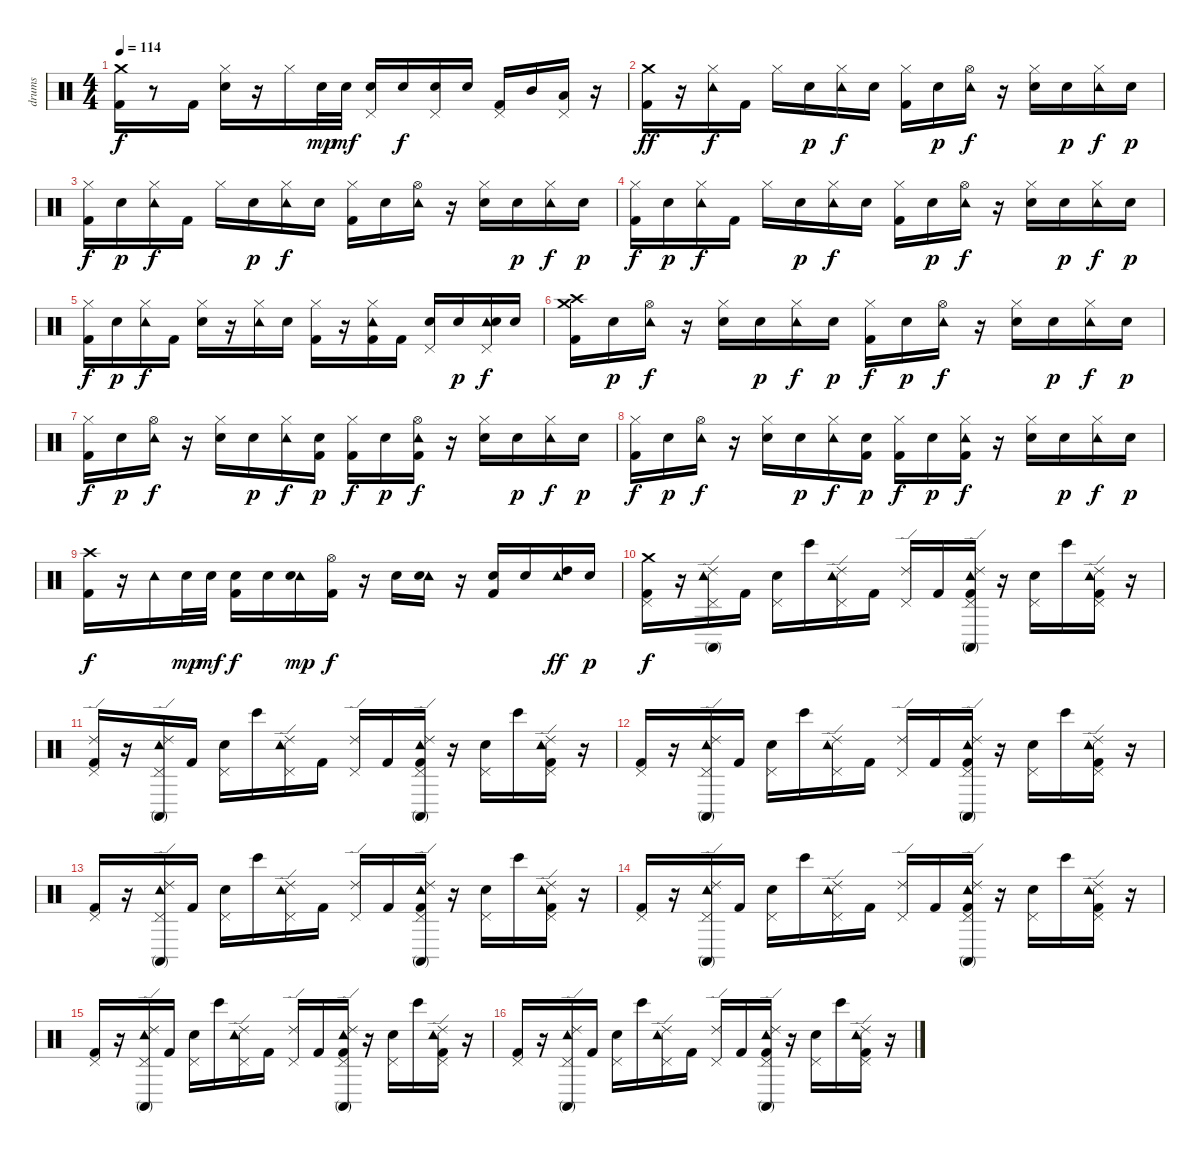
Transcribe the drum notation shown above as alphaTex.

\track ("drums" "drums") {instrument percussion}
\staff {score}
\articulation defaults
\ts (4 4)
\tempo 114
\clef neutral
\ks c
("Crash medium (hit)" "Kick (hit) 2").16{dy f} r.8 "Kick (hit) 2".16 ("Electric Snare (hit)" "Hi-Hat (closed)").16 r.16 "Hi-Hat (closed)".16 "Electric Snare (hit)".32{dy mp} "Electric Snare (hit)".32{dy mf} ("Pedal Hi-Hat (hit)" "Electric Snare (hit)").16 "Electric Snare (hit)".16{dy f} ("Pedal Hi-Hat (hit)" "Electric Snare (hit)").16 "Electric Snare (hit)".16 ("Pedal Hi-Hat (hit)" "Kick (hit) 2").16 "Mid Tom (hit)".16 ("Pedal Hi-Hat (hit)" "Low Tom (hit)").16 r.16 |
("Crash medium (hit)" "Kick (hit) 2").16{dy ff} r.16 ("Tambourine (hit)" "Hi-Hat (closed)").16{dy f} "Kick (hit) 2".16 "Hi-Hat (closed)".16 "Electric Snare (hit)".16{dy p} ("Tambourine (hit)" "Hi-Hat (closed)").16{dy f} "Electric Snare (hit)".16 ("Kick (hit) 2" "Hi-Hat (closed)").16 "Electric Snare (hit)".16{dy p} ("Tambourine (hit)" "Hi-Hat (open)").16{dy f} r.16 ("Electric Snare (hit)" "Hi-Hat (closed)").16 "Electric Snare (hit)".16{dy p} ("Tambourine (hit)" "Hi-Hat (closed)").16{dy f} "Electric Snare (hit)".16{dy p} |
("Hi-Hat (closed)" "Kick (hit) 2").16{dy f} "Electric Snare (hit)".16{dy p} ("Tambourine (hit)" "Hi-Hat (closed)").16{dy f} "Kick (hit) 2".16 "Hi-Hat (closed)".16 "Electric Snare (hit)".16{dy p} ("Tambourine (hit)" "Hi-Hat (closed)").16{dy f} "Electric Snare (hit)".16 ("Kick (hit) 2" "Hi-Hat (closed)").16 "Electric Snare (hit)".16 ("Tambourine (hit)" "Hi-Hat (open)").16 r.16 ("Electric Snare (hit)" "Hi-Hat (closed)").16 "Electric Snare (hit)".16{dy p} ("Tambourine (hit)" "Hi-Hat (closed)").16{dy f} "Electric Snare (hit)".16{dy p} |
("Hi-Hat (closed)" "Kick (hit) 2").16{dy f} "Electric Snare (hit)".16{dy p} ("Tambourine (hit)" "Hi-Hat (closed)").16{dy f} "Kick (hit) 2".16 "Hi-Hat (closed)".16 "Electric Snare (hit)".16{dy p} ("Tambourine (hit)" "Hi-Hat (closed)").16{dy f} "Electric Snare (hit)".16 ("Kick (hit) 2" "Hi-Hat (closed)").16 "Electric Snare (hit)".16{dy p} ("Tambourine (hit)" "Hi-Hat (open)").16{dy f} r.16 ("Electric Snare (hit)" "Hi-Hat (closed)").16 "Electric Snare (hit)".16{dy p} ("Tambourine (hit)" "Hi-Hat (closed)").16{dy f} "Electric Snare (hit)".16{dy p} |
("Hi-Hat (closed)" "Kick (hit) 2").16{dy f} "Electric Snare (hit)".16{dy p} ("Hi-Hat (closed)" "Tambourine (hit)").16{dy f} "Kick (hit) 2".16 ("Electric Snare (hit)" "Hi-Hat (closed)").16 r.16 ("Tambourine (hit)" "Hi-Hat (closed)").16 "Electric Snare (hit)".16 ("Hi-Hat (closed)" "Kick (hit) 2").16 r.16 ("Tambourine (hit)" "Kick (hit) 2" "Hi-Hat (closed)").16 "Kick (hit) 2".16 ("Electric Snare (hit)" "Pedal Hi-Hat (hit)").16 "Electric Snare (hit)".16{dy p} ("Tambourine (hit)" "Electric Snare (hit)" "Pedal Hi-Hat (hit)").16{dy f} "Electric Snare (hit)".16 |
("Crash medium (hit)" "Crash high (hit)" "Kick (hit) 2").16 "Electric Snare (hit)".16{dy p} ("Tambourine (hit)" "Hi-Hat (open)").16{dy f} r.16 ("Electric Snare (hit)" "Hi-Hat (closed)").16 "Electric Snare (hit)".16{dy p} ("Tambourine (hit)" "Hi-Hat (closed)").16{dy f} "Electric Snare (hit)".16{dy p} ("Hi-Hat (closed)" "Kick (hit) 2").16{dy f} "Electric Snare (hit)".16{dy p} ("Tambourine (hit)" "Hi-Hat (open)").16{dy f} r.16 ("Hi-Hat (closed)" "Electric Snare (hit)").16 "Electric Snare (hit)".16{dy p} ("Tambourine (hit)" "Hi-Hat (closed)").16{dy f} "Electric Snare (hit)".16{dy p} |
("Hi-Hat (closed)" "Kick (hit) 2").16{dy f} "Electric Snare (hit)".16{dy p} ("Tambourine (hit)" "Hi-Hat (open)").16{dy f} r.16 ("Electric Snare (hit)" "Hi-Hat (closed)").16 "Electric Snare (hit)".16{dy p} ("Tambourine (hit)" "Hi-Hat (closed)").16{dy f} ("Electric Snare (hit)" "Kick (hit) 2").16{dy p} ("Kick (hit) 2" "Hi-Hat (closed)").16{dy f} "Electric Snare (hit)".16{dy p} ("Tambourine (hit)" "Kick (hit) 2" "Hi-Hat (open)").16{dy f} r.16 ("Electric Snare (hit)" "Hi-Hat (closed)").16 "Electric Snare (hit)".16{dy p} ("Tambourine (hit)" "Hi-Hat (closed)").16{dy f} "Electric Snare (hit)".16{dy p} |
("Hi-Hat (closed)" "Kick (hit) 2").16{dy f} "Electric Snare (hit)".16{dy p} ("Tambourine (hit)" "Hi-Hat (open)").16{dy f} r.16 ("Electric Snare (hit)" "Hi-Hat (closed)").16 "Electric Snare (hit)".16{dy p} ("Tambourine (hit)" "Hi-Hat (closed)").16{dy f} ("Electric Snare (hit)" "Kick (hit) 2").16{dy p} ("Kick (hit) 2" "Hi-Hat (closed)").16{dy f} "Electric Snare (hit)".16{dy p} ("Tambourine (hit)" "Kick (hit) 2" "Hi-Hat (closed)").16{dy f} r.16 ("Electric Snare (hit)" "Hi-Hat (closed)").16 "Electric Snare (hit)".16{dy p} ("Tambourine (hit)" "Hi-Hat (closed)").16{dy f} "Electric Snare (hit)".16{dy p} |
("Crash high (hit)" "Kick (hit) 2").16{dy f} r.16 "Tambourine (hit)".16 "Electric Snare (hit)".32{dy mp} "Electric Snare (hit)".32{dy mf} ("Kick (hit) 2" "Electric Snare (hit)").16{dy f} "Electric Snare (hit)".16 ("Tambourine (hit)" "Electric Snare (hit)").16{dy mp} ("Kick (hit) 2" "Hi-Hat (open)").16{dy f} r.16 "Electric Snare (hit)".16 ("Tambourine (hit)" "Electric Snare (hit)").16 r.16 ("Electric Snare (hit)" "Kick (hit) 2").16 "Electric Snare (hit)".16 ("Tambourine (hit)" "High Tom (hit)").16{dy ff} "Electric Snare (hit)".16{dy p} |
("Pedal Hi-Hat (hit)" "Crash medium (hit)" "Kick (hit) 2").16{dy f} r.16 ("Pedal Hi-Hat (hit)" "Tambourine (hit)" "Conga high (mute)" "Ride (edge) 2").16 "Kick (hit) 2".16 ("Pedal Hi-Hat (hit)" "Electric Snare (hit)").16 "Bongo High (hit)".16 ("Pedal Hi-Hat (hit)" "Tambourine (hit)" "Ride (edge) 2").16 "Kick (hit) 2".16 ("Pedal Hi-Hat (hit)" "Ride (edge) 2").16 "Kick (hit) 2".16 ("Pedal Hi-Hat (hit)" "Conga high (mute)" "Tambourine (hit)" "Kick (hit) 2" "Ride (edge) 2").16 r.16 ("Pedal Hi-Hat (hit)" "Electric Snare (hit)").16 "Bongo High (hit)".16 ("Pedal Hi-Hat (hit)" "Tambourine (hit)" "Kick (hit) 2" "Ride (edge) 2").16 r.16 |
("Pedal Hi-Hat (hit)" "Ride (edge) 2" "Kick (hit) 2").16 r.16 ("Pedal Hi-Hat (hit)" "Tambourine (hit)" "Conga high (mute)" "Ride (edge) 2").16 "Kick (hit) 2".16 ("Pedal Hi-Hat (hit)" "Electric Snare (hit)").16 "Bongo High (hit)".16 ("Pedal Hi-Hat (hit)" "Tambourine (hit)" "Ride (edge) 2").16 "Kick (hit) 2".16 ("Pedal Hi-Hat (hit)" "Ride (edge) 2").16 "Kick (hit) 2".16 ("Pedal Hi-Hat (hit)" "Conga high (mute)" "Tambourine (hit)" "Kick (hit) 2" "Ride (edge) 2").16 r.16 ("Pedal Hi-Hat (hit)" "Electric Snare (hit)").16 "Bongo High (hit)".16 ("Pedal Hi-Hat (hit)" "Tambourine (hit)" "Kick (hit) 2" "Ride (edge) 2").16 r.16 |
("Pedal Hi-Hat (hit)" "Kick (hit) 2").16 r.16 ("Pedal Hi-Hat (hit)" "Tambourine (hit)" "Conga high (mute)" "Ride (edge) 2").16 "Kick (hit) 2".16 ("Pedal Hi-Hat (hit)" "Electric Snare (hit)").16 "Bongo High (hit)".16 ("Pedal Hi-Hat (hit)" "Tambourine (hit)" "Ride (edge) 2").16 "Kick (hit) 2".16 ("Pedal Hi-Hat (hit)" "Ride (edge) 2").16 "Kick (hit) 2".16 ("Pedal Hi-Hat (hit)" "Conga high (mute)" "Tambourine (hit)" "Kick (hit) 2" "Ride (edge) 2").16 r.16 ("Pedal Hi-Hat (hit)" "Electric Snare (hit)").16 "Bongo High (hit)".16 ("Pedal Hi-Hat (hit)" "Tambourine (hit)" "Ride (edge) 2" "Kick (hit) 2").16 r.16 |
("Kick (hit) 2" "Pedal Hi-Hat (hit)").16 r.16 ("Ride (edge) 2" "Pedal Hi-Hat (hit)" "Tambourine (hit)" "Conga high (mute)").16 "Kick (hit) 2".16 ("Electric Snare (hit)" "Pedal Hi-Hat (hit)").16 "Bongo High (hit)".16 ("Ride (edge) 2" "Pedal Hi-Hat (hit)" "Tambourine (hit)").16 "Kick (hit) 2".16 ("Ride (edge) 2" "Pedal Hi-Hat (hit)").16 "Kick (hit) 2".16 ("Kick (hit) 2" "Ride (edge) 2" "Pedal Hi-Hat (hit)" "Conga high (mute)" "Tambourine (hit)").16 r.16 ("Electric Snare (hit)" "Pedal Hi-Hat (hit)").16 "Bongo High (hit)".16 ("Ride (edge) 2" "Kick (hit) 2" "Pedal Hi-Hat (hit)" "Tambourine (hit)").16 r.16 |
("Kick (hit) 2" "Pedal Hi-Hat (hit)").16 r.16 ("Ride (edge) 2" "Pedal Hi-Hat (hit)" "Tambourine (hit)" "Conga high (mute)").16 "Kick (hit) 2".16 ("Electric Snare (hit)" "Pedal Hi-Hat (hit)").16 "Bongo High (hit)".16 ("Ride (edge) 2" "Pedal Hi-Hat (hit)" "Tambourine (hit)").16 "Kick (hit) 2".16 ("Ride (edge) 2" "Pedal Hi-Hat (hit)").16 "Kick (hit) 2".16 ("Kick (hit) 2" "Ride (edge) 2" "Pedal Hi-Hat (hit)" "Conga high (mute)" "Tambourine (hit)").16 r.16 ("Electric Snare (hit)" "Pedal Hi-Hat (hit)").16 "Bongo High (hit)".16 ("Ride (edge) 2" "Kick (hit) 2" "Pedal Hi-Hat (hit)" "Tambourine (hit)").16 r.16 |
("Kick (hit) 2" "Pedal Hi-Hat (hit)").16 r.16 ("Ride (edge) 2" "Pedal Hi-Hat (hit)" "Tambourine (hit)" "Conga high (mute)").16 "Kick (hit) 2".16 ("Electric Snare (hit)" "Pedal Hi-Hat (hit)").16 "Bongo High (hit)".16 ("Ride (edge) 2" "Pedal Hi-Hat (hit)" "Tambourine (hit)").16 "Kick (hit) 2".16 ("Ride (edge) 2" "Pedal Hi-Hat (hit)").16 "Kick (hit) 2".16 ("Kick (hit) 2" "Ride (edge) 2" "Pedal Hi-Hat (hit)" "Conga high (mute)" "Tambourine (hit)").16 r.16 ("Electric Snare (hit)" "Pedal Hi-Hat (hit)").16 "Bongo High (hit)".16 ("Ride (edge) 2" "Kick (hit) 2" "Pedal Hi-Hat (hit)" "Tambourine (hit)").16 r.16 |
("Pedal Hi-Hat (hit)" "Kick (hit) 2").16 r.16 ("Pedal Hi-Hat (hit)" "Tambourine (hit)" "Conga high (mute)" "Ride (edge) 2").16 "Kick (hit) 2".16 ("Pedal Hi-Hat (hit)" "Electric Snare (hit)").16 "Bongo High (hit)".16 ("Pedal Hi-Hat (hit)" "Tambourine (hit)" "Ride (edge) 2").16 "Kick (hit) 2".16 ("Pedal Hi-Hat (hit)" "Ride (edge) 2").16 "Kick (hit) 2".16 ("Pedal Hi-Hat (hit)" "Conga high (mute)" "Tambourine (hit)" "Kick (hit) 2" "Ride (edge) 2").16 r.16 ("Pedal Hi-Hat (hit)" "Electric Snare (hit)").16 "Bongo High (hit)".16 ("Pedal Hi-Hat (hit)" "Tambourine (hit)" "Ride (edge) 2" "Kick (hit) 2").16 r.16
